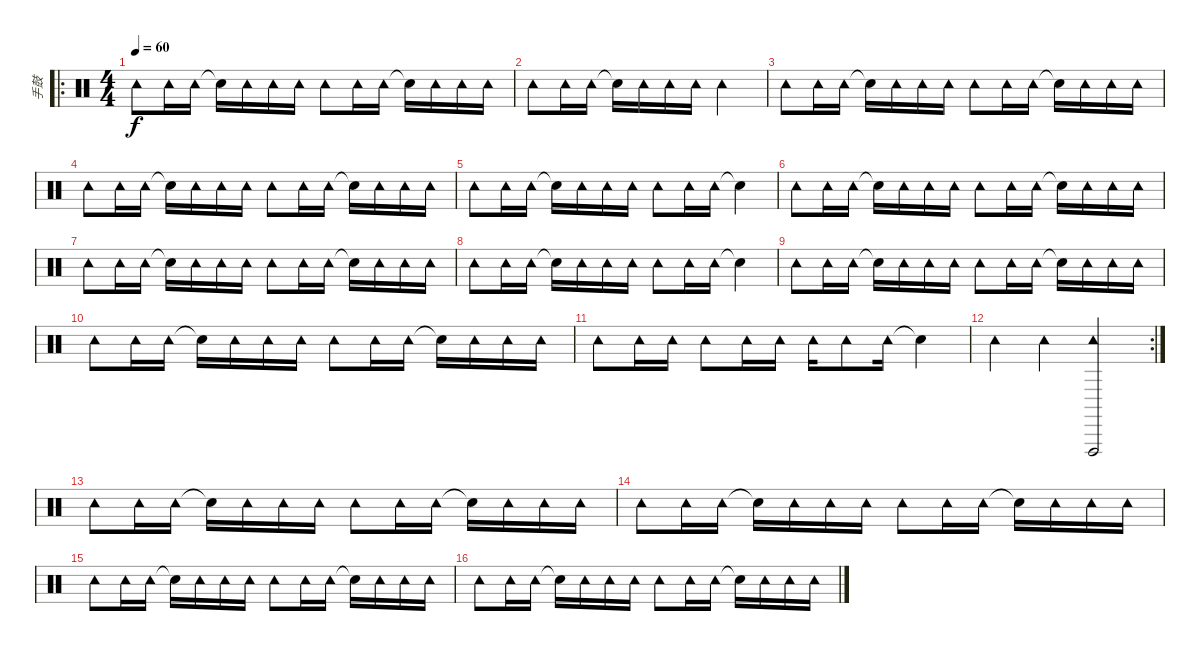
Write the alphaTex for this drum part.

\track ("手鼓" "手鼓") {instrument percussion}
\staff {score}
\articulation defaults
\ro
\ts (4 4)
\tempo 60
\clef neutral
\ks c "Tambourine (hit)".8{dy f} "Tambourine (hit)".16 "Tambourine (hit)".16 "Snare (hit)"{t}.16 "Tambourine (hit)".16 "Tambourine (hit)".16 "Tambourine (hit)".16 "Tambourine (hit)".8 "Tambourine (hit)".16 "Tambourine (hit)".16 "Snare (hit)"{t}.16 "Tambourine (hit)".16 "Tambourine (hit)".16 "Tambourine (hit)".16
|
"Tambourine (hit)".8 "Tambourine (hit)".16 "Tambourine (hit)".16 "Snare (hit)"{t}.16 "Tambourine (hit)".16 "Tambourine (hit)".16 "Tambourine (hit)".16 "Tambourine (hit)".2 |
"Tambourine (hit)".8 "Tambourine (hit)".16 "Tambourine (hit)".16 "Snare (hit)"{t}.16 "Tambourine (hit)".16 "Tambourine (hit)".16 "Tambourine (hit)".16 "Tambourine (hit)".8 "Tambourine (hit)".16 "Tambourine (hit)".16 "Snare (hit)"{t}.16 "Tambourine (hit)".16 "Tambourine (hit)".16 "Tambourine (hit)".16 |
"Tambourine (hit)".8 "Tambourine (hit)".16 "Tambourine (hit)".16 "Snare (hit)"{t}.16 "Tambourine (hit)".16 "Tambourine (hit)".16 "Tambourine (hit)".16 "Tambourine (hit)".8 "Tambourine (hit)".16 "Tambourine (hit)".16 "Snare (hit)"{t}.16 "Tambourine (hit)".16 "Tambourine (hit)".16 "Tambourine (hit)".16 |
"Tambourine (hit)".8 "Tambourine (hit)".16 "Tambourine (hit)".16 "Snare (hit)"{t}.16 "Tambourine (hit)".16 "Tambourine (hit)".16 "Tambourine (hit)".16 "Tambourine (hit)".8 "Tambourine (hit)".16 "Tambourine (hit)".16 "Snare (hit)"{t}.4 |
"Tambourine (hit)".8 "Tambourine (hit)".16 "Tambourine (hit)".16 "Snare (hit)"{t}.16 "Tambourine (hit)".16 "Tambourine (hit)".16 "Tambourine (hit)".16 "Tambourine (hit)".8 "Tambourine (hit)".16 "Tambourine (hit)".16 "Snare (hit)"{t}.16 "Tambourine (hit)".16 "Tambourine (hit)".16 "Tambourine (hit)".16 |
"Tambourine (hit)".8 "Tambourine (hit)".16 "Tambourine (hit)".16 "Snare (hit)"{t}.16 "Tambourine (hit)".16 "Tambourine (hit)".16 "Tambourine (hit)".16 "Tambourine (hit)".8 "Tambourine (hit)".16 "Tambourine (hit)".16 "Snare (hit)"{t}.16 "Tambourine (hit)".16 "Tambourine (hit)".16 "Tambourine (hit)".16 |
"Tambourine (hit)".8 "Tambourine (hit)".16 "Tambourine (hit)".16 "Snare (hit)"{t}.16 "Tambourine (hit)".16 "Tambourine (hit)".16 "Tambourine (hit)".16 "Tambourine (hit)".8 "Tambourine (hit)".16 "Tambourine (hit)".16 "Snare (hit)"{t}.4 |
"Tambourine (hit)".8 "Tambourine (hit)".16 "Tambourine (hit)".16 "Snare (hit)"{t}.16 "Tambourine (hit)".16 "Tambourine (hit)".16 "Tambourine (hit)".16 "Tambourine (hit)".8 "Tambourine (hit)".16 "Tambourine (hit)".16 "Snare (hit)"{t}.16 "Tambourine (hit)".16 "Tambourine (hit)".16 "Tambourine (hit)".16 |
"Tambourine (hit)".8 "Tambourine (hit)".16 "Tambourine (hit)".16 "Snare (hit)"{t}.16 "Tambourine (hit)".16 "Tambourine (hit)".16 "Tambourine (hit)".16 "Tambourine (hit)".8 "Tambourine (hit)".16 "Tambourine (hit)".16 "Snare (hit)"{t}.16 "Tambourine (hit)".16 "Tambourine (hit)".16 "Tambourine (hit)".16 |
"Tambourine (hit)".8 "Tambourine (hit)".16 "Tambourine (hit)".16 "Tambourine (hit)".8 "Tambourine (hit)".16 "Tambourine (hit)".16 "Tambourine (hit)".16 "Tambourine (hit)".8 "Tambourine (hit)".16 "Snare (hit)"{t}.4 |
\rc 2 "Tambourine (hit)".4 "Tambourine (hit)".4
("Tambourine (hit)" "Vibraslap (hit)").2 |
"Tambourine (hit)".8 "Tambourine (hit)".16 "Tambourine (hit)".16 "Snare (hit)"{t}.16 "Tambourine (hit)".16 "Tambourine (hit)".16 "Tambourine (hit)".16 "Tambourine (hit)".8 "Tambourine (hit)".16 "Tambourine (hit)".16 "Snare (hit)"{t}.16 "Tambourine (hit)".16 "Tambourine (hit)".16 "Tambourine (hit)".16 |
"Tambourine (hit)".8 "Tambourine (hit)".16 "Tambourine (hit)".16 "Snare (hit)"{t}.16 "Tambourine (hit)".16 "Tambourine (hit)".16 "Tambourine (hit)".16 "Tambourine (hit)".8 "Tambourine (hit)".16 "Tambourine (hit)".16 "Snare (hit)"{t}.16 "Tambourine (hit)".16 "Tambourine (hit)".16 "Tambourine (hit)".16 |
"Tambourine (hit)".8 "Tambourine (hit)".16 "Tambourine (hit)".16 "Snare (hit)"{t}.16 "Tambourine (hit)".16 "Tambourine (hit)".16 "Tambourine (hit)".16 "Tambourine (hit)".8 "Tambourine (hit)".16 "Tambourine (hit)".16 "Snare (hit)"{t}.16 "Tambourine (hit)".16 "Tambourine (hit)".16 "Tambourine (hit)".16 |
"Tambourine (hit)".8 "Tambourine (hit)".16 "Tambourine (hit)".16 "Snare (hit)"{t}.16 "Tambourine (hit)".16 "Tambourine (hit)".16 "Tambourine (hit)".16 "Tambourine (hit)".8 "Tambourine (hit)".16 "Tambourine (hit)".16 "Snare (hit)"{t}.16 "Tambourine (hit)".16 "Tambourine (hit)".16 "Tambourine (hit)".16
